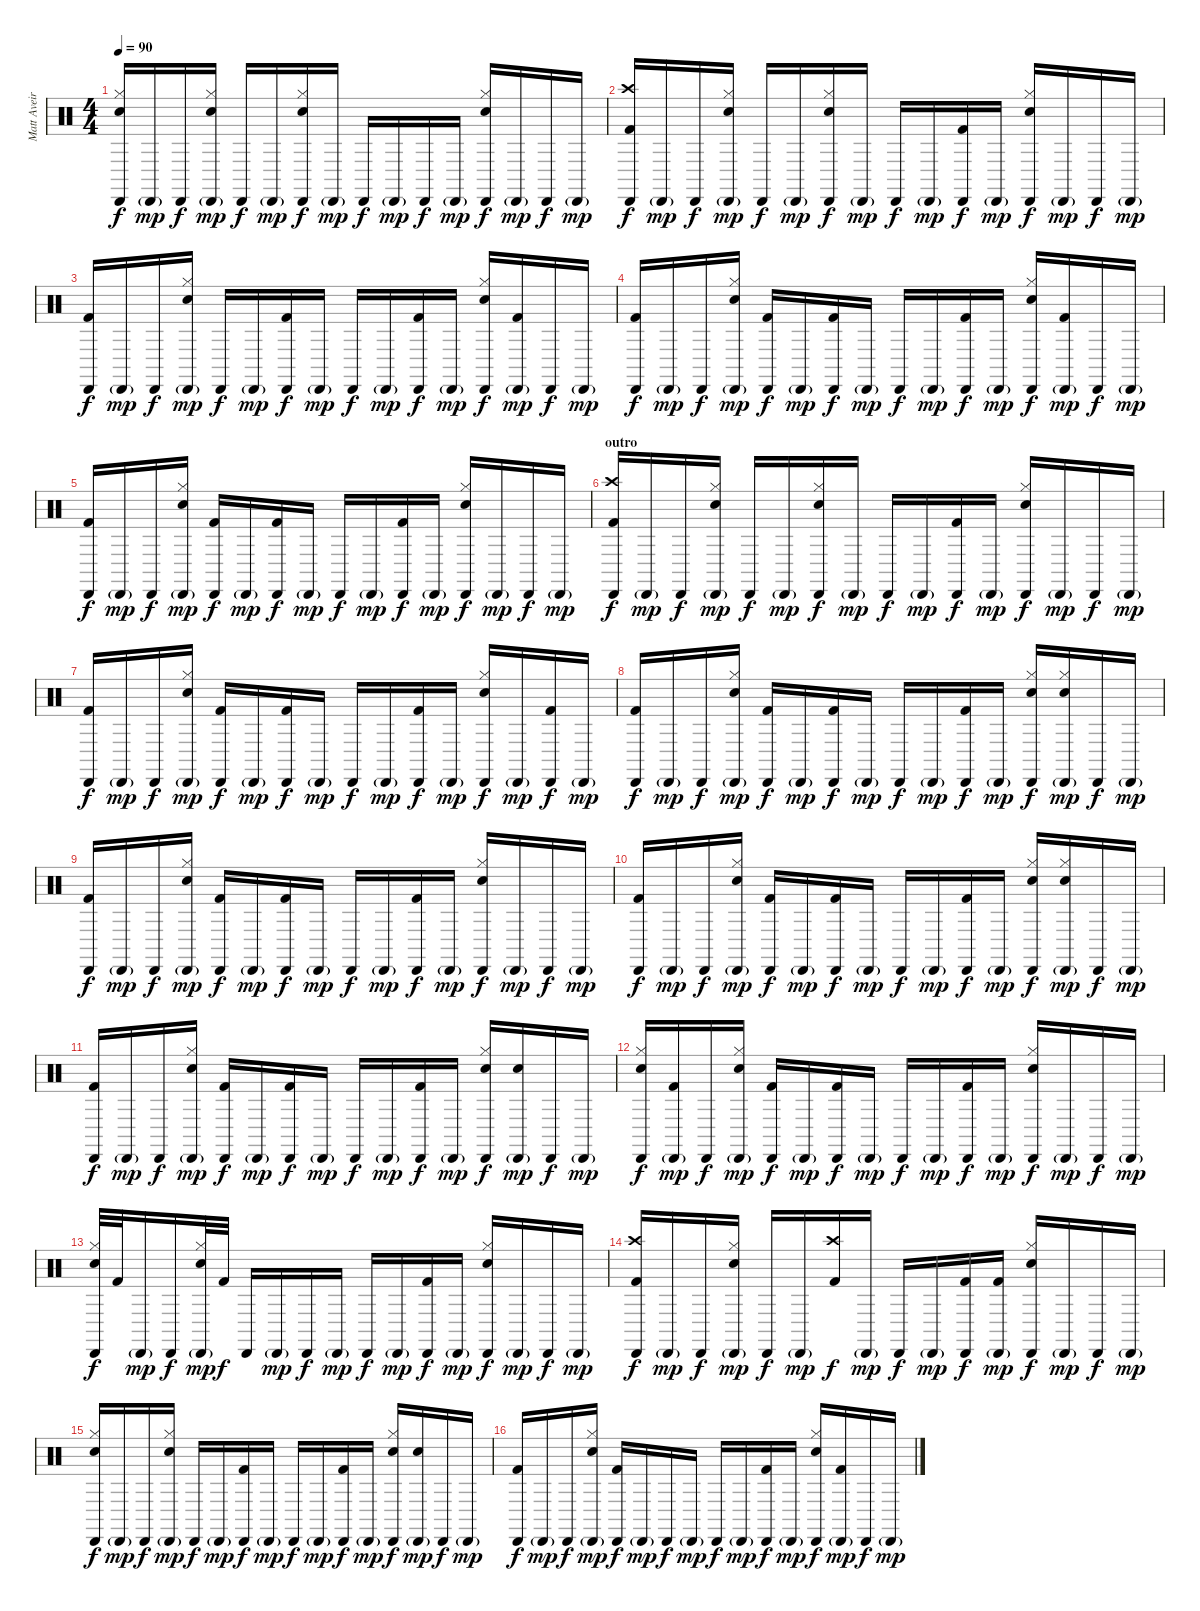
\track ("Matt Aveiro-drums" "Matt Aveir") {instrument percussion}
\staff {score}
\articulation defaults
\ts (4 4)
\tempo 90
\clef neutral
\ks c
("Cabasa (hit)" "Hi-Hat (closed)" "Snare (hit) 2").16{dy f} "Cabasa (hit)"{g}.16{dy mp} "Cabasa (hit)".16{dy f} ("Cabasa (hit)"{g} "Hi-Hat (closed)" "Snare (hit) 2").16{dy mp} "Cabasa (hit)".16{dy f} "Cabasa (hit)"{g}.16{dy mp} ("Cabasa (hit)" "Hi-Hat (closed)" "Snare (hit) 2").16{dy f} "Cabasa (hit)"{g}.16{dy mp} "Cabasa (hit)".16{dy f} "Cabasa (hit)"{g}.16{dy mp} "Cabasa (hit)".16{dy f} "Cabasa (hit)"{g}.16{dy mp} ("Cabasa (hit)" "Hi-Hat (closed)" "Snare (hit) 2").16{dy f} "Cabasa (hit)"{g}.16{dy mp} "Cabasa (hit)".16{dy f} "Cabasa (hit)"{g}.16{dy mp} |
("Cabasa (hit)" "Crash high (hit)" "Kick (hit) 2").16{dy f} "Cabasa (hit)"{g}.16{dy mp} "Cabasa (hit)".16{dy f} ("Cabasa (hit)"{g} "Hi-Hat (closed)" "Snare (hit) 2").16{dy mp} "Cabasa (hit)".16{dy f} "Cabasa (hit)"{g}.16{dy mp} ("Cabasa (hit)" "Hi-Hat (closed)" "Snare (hit) 2").16{dy f} "Cabasa (hit)"{g}.16{dy mp} "Cabasa (hit)".16{dy f} "Cabasa (hit)"{g}.16{dy mp} ("Cabasa (hit)" "Kick (hit) 2").16{dy f} "Cabasa (hit)"{g}.16{dy mp} ("Cabasa (hit)" "Hi-Hat (closed)" "Snare (hit) 2").16{dy f} "Cabasa (hit)"{g}.16{dy mp} "Cabasa (hit)".16{dy f} "Cabasa (hit)"{g}.16{dy mp} |
("Cabasa (hit)" "Kick (hit) 2").16{dy f} "Cabasa (hit)"{g}.16{dy mp} "Cabasa (hit)".16{dy f} ("Cabasa (hit)"{g} "Hi-Hat (closed)" "Snare (hit) 2").16{dy mp} "Cabasa (hit)".16{dy f} "Cabasa (hit)"{g}.16{dy mp} ("Cabasa (hit)" "Kick (hit) 2").16{dy f} "Cabasa (hit)"{g}.16{dy mp} "Cabasa (hit)".16{dy f} "Cabasa (hit)"{g}.16{dy mp} ("Cabasa (hit)" "Kick (hit) 2").16{dy f} "Cabasa (hit)"{g}.16{dy mp} ("Cabasa (hit)" "Hi-Hat (closed)" "Snare (hit) 2").16{dy f} ("Cabasa (hit)"{g} "Kick (hit) 2").16{dy mp} "Cabasa (hit)".16{dy f} "Cabasa (hit)"{g}.16{dy mp} |
("Cabasa (hit)" "Kick (hit) 2").16{dy f} "Cabasa (hit)"{g}.16{dy mp} "Cabasa (hit)".16{dy f} ("Cabasa (hit)"{g} "Hi-Hat (closed)" "Snare (hit) 2").16{dy mp} ("Cabasa (hit)" "Kick (hit) 2").16{dy f} "Cabasa (hit)"{g}.16{dy mp} ("Cabasa (hit)" "Kick (hit) 2").16{dy f} "Cabasa (hit)"{g}.16{dy mp} "Cabasa (hit)".16{dy f} "Cabasa (hit)"{g}.16{dy mp} ("Cabasa (hit)" "Kick (hit) 2").16{dy f} "Cabasa (hit)"{g}.16{dy mp} ("Cabasa (hit)" "Hi-Hat (closed)" "Snare (hit) 2").16{dy f} ("Cabasa (hit)"{g} "Kick (hit) 2").16{dy mp} "Cabasa (hit)".16{dy f} "Cabasa (hit)"{g}.16{dy mp} |
("Cabasa (hit)" "Kick (hit) 2").16{dy f} "Cabasa (hit)"{g}.16{dy mp} "Cabasa (hit)".16{dy f} ("Cabasa (hit)"{g} "Hi-Hat (closed)" "Snare (hit) 2").16{dy mp} ("Cabasa (hit)" "Kick (hit) 2").16{dy f} "Cabasa (hit)"{g}.16{dy mp} ("Cabasa (hit)" "Kick (hit) 2").16{dy f} "Cabasa (hit)"{g}.16{dy mp} "Cabasa (hit)".16{dy f} "Cabasa (hit)"{g}.16{dy mp} ("Cabasa (hit)" "Kick (hit) 2").16{dy f} "Cabasa (hit)"{g}.16{dy mp} ("Cabasa (hit)" "Hi-Hat (closed)" "Snare (hit) 2").16{dy f} "Cabasa (hit)"{g}.16{dy mp} "Cabasa (hit)".16{dy f} "Cabasa (hit)"{g}.16{dy mp} |
\section ("" "outro")
("Cabasa (hit)" "Crash high (hit)" "Kick (hit) 2").16{dy f} "Cabasa (hit)"{g}.16{dy mp} "Cabasa (hit)".16{dy f} ("Cabasa (hit)"{g} "Hi-Hat (closed)" "Snare (hit) 2").16{dy mp} "Cabasa (hit)".16{dy f} "Cabasa (hit)"{g}.16{dy mp} ("Cabasa (hit)" "Hi-Hat (closed)" "Snare (hit) 2").16{dy f} "Cabasa (hit)"{g}.16{dy mp} "Cabasa (hit)".16{dy f} "Cabasa (hit)"{g}.16{dy mp} ("Cabasa (hit)" "Kick (hit) 2").16{dy f} "Cabasa (hit)"{g}.16{dy mp} ("Cabasa (hit)" "Hi-Hat (closed)" "Snare (hit) 2").16{dy f} "Cabasa (hit)"{g}.16{dy mp} "Cabasa (hit)".16{dy f} "Cabasa (hit)"{g}.16{dy mp} |
("Cabasa (hit)" "Kick (hit) 2").16{dy f} "Cabasa (hit)"{g}.16{dy mp} "Cabasa (hit)".16{dy f} ("Cabasa (hit)"{g} "Hi-Hat (closed)" "Snare (hit) 2").16{dy mp} ("Cabasa (hit)" "Kick (hit) 2").16{dy f} "Cabasa (hit)"{g}.16{dy mp} ("Cabasa (hit)" "Kick (hit) 2").16{dy f} "Cabasa (hit)"{g}.16{dy mp} "Cabasa (hit)".16{dy f} "Cabasa (hit)"{g}.16{dy mp} ("Cabasa (hit)" "Kick (hit) 2").16{dy f} "Cabasa (hit)"{g}.16{dy mp} ("Cabasa (hit)" "Hi-Hat (closed)" "Snare (hit) 2").16{dy f} "Cabasa (hit)"{g}.16{dy mp} ("Cabasa (hit)" "Kick (hit) 2").16{dy f} "Cabasa (hit)"{g}.16{dy mp} |
("Cabasa (hit)" "Kick (hit) 2").16{dy f} "Cabasa (hit)"{g}.16{dy mp} "Cabasa (hit)".16{dy f} ("Cabasa (hit)"{g} "Hi-Hat (closed)" "Snare (hit) 2").16{dy mp} ("Cabasa (hit)" "Kick (hit) 2").16{dy f} "Cabasa (hit)"{g}.16{dy mp} ("Cabasa (hit)" "Kick (hit) 2").16{dy f} "Cabasa (hit)"{g}.16{dy mp} "Cabasa (hit)".16{dy f} "Cabasa (hit)"{g}.16{dy mp} ("Cabasa (hit)" "Kick (hit) 2").16{dy f} "Cabasa (hit)"{g}.16{dy mp} ("Cabasa (hit)" "Hi-Hat (closed)" "Snare (hit) 2").16{dy f} ("Cabasa (hit)"{g} "Hi-Hat (closed)" "Snare (hit) 2").16{dy mp} "Cabasa (hit)".16{dy f} "Cabasa (hit)"{g}.16{dy mp} |
("Cabasa (hit)" "Kick (hit) 2").16{dy f} "Cabasa (hit)"{g}.16{dy mp} "Cabasa (hit)".16{dy f} ("Cabasa (hit)"{g} "Hi-Hat (closed)" "Snare (hit) 2").16{dy mp} ("Cabasa (hit)" "Kick (hit) 2").16{dy f} "Cabasa (hit)"{g}.16{dy mp} ("Cabasa (hit)" "Kick (hit) 2").16{dy f} "Cabasa (hit)"{g}.16{dy mp} "Cabasa (hit)".16{dy f} "Cabasa (hit)"{g}.16{dy mp} ("Cabasa (hit)" "Kick (hit) 2").16{dy f} "Cabasa (hit)"{g}.16{dy mp} ("Cabasa (hit)" "Hi-Hat (closed)" "Snare (hit) 2").16{dy f} "Cabasa (hit)"{g}.16{dy mp} "Cabasa (hit)".16{dy f} "Cabasa (hit)"{g}.16{dy mp} |
("Cabasa (hit)" "Kick (hit) 2").16{dy f} "Cabasa (hit)"{g}.16{dy mp} "Cabasa (hit)".16{dy f} ("Cabasa (hit)"{g} "Hi-Hat (closed)" "Snare (hit) 2").16{dy mp} ("Cabasa (hit)" "Kick (hit) 2").16{dy f} "Cabasa (hit)"{g}.16{dy mp} ("Cabasa (hit)" "Kick (hit) 2").16{dy f} "Cabasa (hit)"{g}.16{dy mp} "Cabasa (hit)".16{dy f} "Cabasa (hit)"{g}.16{dy mp} ("Cabasa (hit)" "Kick (hit) 2").16{dy f} "Cabasa (hit)"{g}.16{dy mp} ("Cabasa (hit)" "Hi-Hat (closed)" "Snare (hit) 2").16{dy f} ("Cabasa (hit)"{g} "Hi-Hat (closed)" "Snare (hit) 2").16{dy mp} "Cabasa (hit)".16{dy f} "Cabasa (hit)"{g}.16{dy mp} |
("Cabasa (hit)" "Kick (hit) 2").16{dy f} "Cabasa (hit)"{g}.16{dy mp} "Cabasa (hit)".16{dy f} ("Cabasa (hit)"{g} "Hi-Hat (closed)" "Snare (hit) 2").16{dy mp} ("Cabasa (hit)" "Kick (hit) 2").16{dy f} "Cabasa (hit)"{g}.16{dy mp} ("Cabasa (hit)" "Kick (hit) 2").16{dy f} "Cabasa (hit)"{g}.16{dy mp} "Cabasa (hit)".16{dy f} "Cabasa (hit)"{g}.16{dy mp} ("Cabasa (hit)" "Kick (hit) 2").16{dy f} "Cabasa (hit)"{g}.16{dy mp} ("Cabasa (hit)" "Hi-Hat (closed)" "Snare (hit) 2").16{dy f} ("Cabasa (hit)"{g} "Snare (hit) 2").16{dy mp} "Cabasa (hit)".16{dy f} "Cabasa (hit)"{g}.16{dy mp} |
("Cabasa (hit)" "Hi-Hat (closed)" "Snare (hit) 2").16{dy f} ("Cabasa (hit)"{g} "Kick (hit) 2").16{dy mp} "Cabasa (hit)".16{dy f} ("Cabasa (hit)"{g} "Hi-Hat (closed)" "Snare (hit) 2").16{dy mp} ("Cabasa (hit)" "Kick (hit) 2").16{dy f} "Cabasa (hit)"{g}.16{dy mp} ("Cabasa (hit)" "Kick (hit) 2").16{dy f} "Cabasa (hit)"{g}.16{dy mp} "Cabasa (hit)".16{dy f} "Cabasa (hit)"{g}.16{dy mp} ("Cabasa (hit)" "Kick (hit) 2").16{dy f} "Cabasa (hit)"{g}.16{dy mp} ("Cabasa (hit)" "Hi-Hat (closed)" "Snare (hit) 2").16{dy f} "Cabasa (hit)"{g}.16{dy mp} "Cabasa (hit)".16{dy f} "Cabasa (hit)"{g}.16{dy mp} |
("Cabasa (hit)" "Hi-Hat (closed)" "Snare (hit) 2").32{dy f} "Kick (hit) 2".32 "Cabasa (hit)"{g}.16{dy mp} "Cabasa (hit)".16{dy f} ("Cabasa (hit)"{g} "Hi-Hat (closed)" "Snare (hit) 2").32{dy mp} "Kick (hit) 2".32{dy f} "Cabasa (hit)".16 "Cabasa (hit)"{g}.16{dy mp} "Cabasa (hit)".16{dy f} "Cabasa (hit)"{g}.16{dy mp} "Cabasa (hit)".16{dy f} "Cabasa (hit)"{g}.16{dy mp} ("Cabasa (hit)" "Kick (hit) 2").16{dy f} "Cabasa (hit)"{g}.16{dy mp} ("Cabasa (hit)" "Hi-Hat (closed)" "Snare (hit) 2").16{dy f} "Cabasa (hit)"{g}.16{dy mp} "Cabasa (hit)".16{dy f} "Cabasa (hit)"{g}.16{dy mp} |
("Cabasa (hit)" "Crash high (hit)" "Kick (hit) 2").16{dy f} "Cabasa (hit)"{g}.16{dy mp} "Cabasa (hit)".16{dy f} ("Cabasa (hit)"{g} "Hi-Hat (closed)" "Snare (hit) 2").16{dy mp} "Cabasa (hit)".16{dy f} "Cabasa (hit)"{g}.16{dy mp} ("Crash high (hit)" "Kick (hit) 2").16{dy f} "Cabasa (hit)"{g}.16{dy mp} "Cabasa (hit)".16{dy f} "Cabasa (hit)"{g}.16{dy mp} ("Cabasa (hit)" "Kick (hit) 2").16{dy f} ("Cabasa (hit)"{g} "Kick (hit) 2").16{dy mp} ("Cabasa (hit)" "Hi-Hat (closed)" "Snare (hit) 2").16{dy f} "Cabasa (hit)"{g}.16{dy mp} "Cabasa (hit)".16{dy f} "Cabasa (hit)"{g}.16{dy mp} |
("Cabasa (hit)" "Hi-Hat (closed)" "Snare (hit) 2").16{dy f} "Cabasa (hit)"{g}.16{dy mp} "Cabasa (hit)".16{dy f} ("Cabasa (hit)"{g} "Hi-Hat (closed)" "Snare (hit) 2").16{dy mp} "Cabasa (hit)".16{dy f} "Cabasa (hit)"{g}.16{dy mp} ("Cabasa (hit)" "Kick (hit) 2").16{dy f} "Cabasa (hit)"{g}.16{dy mp} "Cabasa (hit)".16{dy f} "Cabasa (hit)"{g}.16{dy mp} ("Cabasa (hit)" "Kick (hit) 2").16{dy f} "Cabasa (hit)"{g}.16{dy mp} ("Cabasa (hit)" "Hi-Hat (closed)" "Snare (hit) 2").16{dy f} ("Cabasa (hit)"{g} "Snare (hit) 2").16{dy mp} "Cabasa (hit)".16{dy f} "Cabasa (hit)"{g}.16{dy mp} |
("Cabasa (hit)" "Kick (hit) 2").16{dy f} "Cabasa (hit)"{g}.16{dy mp} "Cabasa (hit)".16{dy f} ("Cabasa (hit)"{g} "Hi-Hat (closed)" "Snare (hit) 2").16{dy mp} ("Cabasa (hit)" "Kick (hit) 2").16{dy f} "Cabasa (hit)"{g}.16{dy mp} "Cabasa (hit)".16{dy f} "Cabasa (hit)"{g}.16{dy mp} "Cabasa (hit)".16{dy f} "Cabasa (hit)"{g}.16{dy mp} ("Cabasa (hit)" "Kick (hit) 2").16{dy f} "Cabasa (hit)"{g}.16{dy mp} ("Cabasa (hit)" "Hi-Hat (closed)" "Snare (hit) 2").16{dy f} ("Cabasa (hit)"{g} "Kick (hit) 2").16{dy mp} "Cabasa (hit)".16{dy f} "Cabasa (hit)"{g}.16{dy mp}
